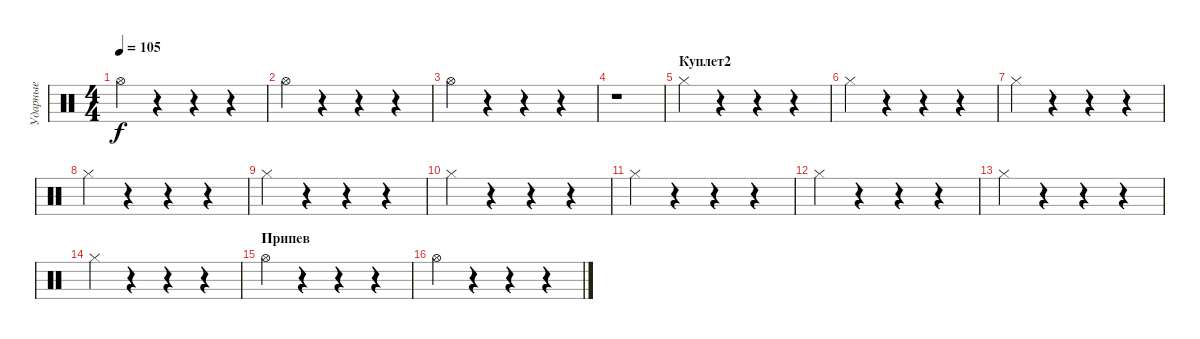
\track ("Ударные" "Ударные") {instrument percussion}
\staff {score}
\articulation defaults
\ts (4 4)
\tempo 105
\clef neutral
\ks c "Hi-Hat (open)".4{dy f}
r.4 r.4 r.4 |
"Hi-Hat (open)".4 r.4 r.4 r.4 |
"Hi-Hat (open)".4 r.4 r.4 r.4 |
r.1 |
\section ("" "Куплет2")
"Hi-Hat (closed)".4 r.4 r.4 r.4 |
"Hi-Hat (closed)".4 r.4 r.4 r.4 |
"Hi-Hat (closed)".4 r.4 r.4 r.4 |
"Hi-Hat (closed)".4 r.4 r.4 r.4 |
"Hi-Hat (closed)".4 r.4 r.4 r.4 |
"Hi-Hat (closed)".4 r.4 r.4 r.4 |
"Hi-Hat (closed)".4 r.4 r.4 r.4 |
"Hi-Hat (closed)".4 r.4 r.4 r.4 |
"Hi-Hat (closed)".4 r.4 r.4 r.4 |
"Hi-Hat (closed)".4 r.4 r.4 r.4 |
\section ("" "Припев")
"Hi-Hat (open)".4 r.4 r.4 r.4 |
"Hi-Hat (open)".4 r.4 r.4 r.4
